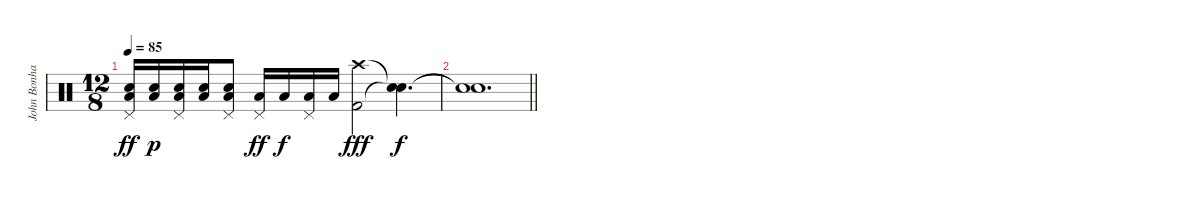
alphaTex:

\track ("John Bonham - Drums" "John Bonha") {instrument percussion}
\staff {score}
\articulation defaults
\ts (12 8)
\tempo 85
\clef neutral
\ks c
("Pedal Hi-Hat (hit)" "Low Floor Tom (hit)" "Snare (hit) 2").16{dy ff} ("Low Floor Tom (hit)" "Snare (hit) 2").16{dy p} ("Pedal Hi-Hat (hit)" "Low Floor Tom (hit)" "Snare (hit) 2").16 ("Low Floor Tom (hit)" "Snare (hit) 2").16 ("Pedal Hi-Hat (hit)" "Low Floor Tom (hit)" "Snare (hit) 2").8 ("Pedal Hi-Hat (hit)" "Low Floor Tom (hit)").16{dy ff} "Low Floor Tom (hit)".16{dy f} ("Pedal Hi-Hat (hit)" "Low Floor Tom (hit)").16 "Low Floor Tom (hit)".16 ("Crash high (hit)" "Kick (hit) 2").2{dy fff} ("Snare (hit)"{t} "Snare (hit)"{t}).4{d dy f} |
\barLineRight lightlight
("Snare (hit)"{t} "Snare (hit)"{t}).1{d volume 0}
